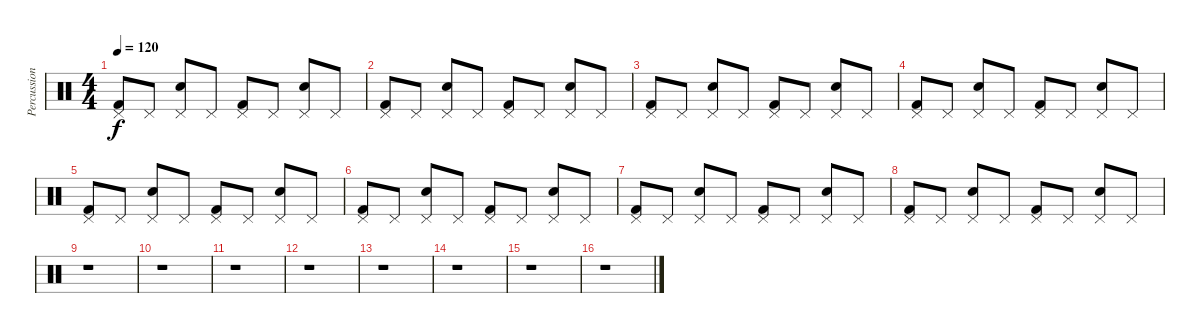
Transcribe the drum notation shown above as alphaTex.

\track ("Percussion" "Percussion") {instrument percussion}
\staff {score}
\articulation defaults
\ts (4 4)
\tempo 120
\clef neutral
\ks c
("Pedal Hi-Hat (hit)" "Kick (hit) 2").8{dy f} "Pedal Hi-Hat (hit)".8 ("Pedal Hi-Hat (hit)" "Snare (hit) 2").8 "Pedal Hi-Hat (hit)".8 ("Pedal Hi-Hat (hit)" "Kick (hit) 2").8 "Pedal Hi-Hat (hit)".8 ("Pedal Hi-Hat (hit)" "Snare (hit) 2").8 "Pedal Hi-Hat (hit)".8 |
("Pedal Hi-Hat (hit)" "Kick (hit) 2").8 "Pedal Hi-Hat (hit)".8 ("Pedal Hi-Hat (hit)" "Snare (hit) 2").8 "Pedal Hi-Hat (hit)".8 ("Pedal Hi-Hat (hit)" "Kick (hit) 2").8 "Pedal Hi-Hat (hit)".8 ("Pedal Hi-Hat (hit)" "Snare (hit) 2").8 "Pedal Hi-Hat (hit)".8 |
("Pedal Hi-Hat (hit)" "Kick (hit) 2").8 "Pedal Hi-Hat (hit)".8 ("Pedal Hi-Hat (hit)" "Snare (hit) 2").8 "Pedal Hi-Hat (hit)".8 ("Pedal Hi-Hat (hit)" "Kick (hit) 2").8 "Pedal Hi-Hat (hit)".8 ("Pedal Hi-Hat (hit)" "Snare (hit) 2").8 "Pedal Hi-Hat (hit)".8 |
("Pedal Hi-Hat (hit)" "Kick (hit) 2").8 "Pedal Hi-Hat (hit)".8 ("Pedal Hi-Hat (hit)" "Snare (hit) 2").8 "Pedal Hi-Hat (hit)".8 ("Pedal Hi-Hat (hit)" "Kick (hit) 2").8 "Pedal Hi-Hat (hit)".8 ("Pedal Hi-Hat (hit)" "Snare (hit) 2").8 "Pedal Hi-Hat (hit)".8 |
("Pedal Hi-Hat (hit)" "Kick (hit) 2").8 "Pedal Hi-Hat (hit)".8 ("Pedal Hi-Hat (hit)" "Snare (hit) 2").8 "Pedal Hi-Hat (hit)".8 ("Pedal Hi-Hat (hit)" "Kick (hit) 2").8 "Pedal Hi-Hat (hit)".8 ("Pedal Hi-Hat (hit)" "Snare (hit) 2").8 "Pedal Hi-Hat (hit)".8 |
("Pedal Hi-Hat (hit)" "Kick (hit) 2").8 "Pedal Hi-Hat (hit)".8 ("Pedal Hi-Hat (hit)" "Snare (hit) 2").8 "Pedal Hi-Hat (hit)".8 ("Pedal Hi-Hat (hit)" "Kick (hit) 2").8 "Pedal Hi-Hat (hit)".8 ("Pedal Hi-Hat (hit)" "Snare (hit) 2").8 "Pedal Hi-Hat (hit)".8 |
("Pedal Hi-Hat (hit)" "Kick (hit) 2").8 "Pedal Hi-Hat (hit)".8 ("Pedal Hi-Hat (hit)" "Snare (hit) 2").8 "Pedal Hi-Hat (hit)".8 ("Pedal Hi-Hat (hit)" "Kick (hit) 2").8 "Pedal Hi-Hat (hit)".8 ("Pedal Hi-Hat (hit)" "Snare (hit) 2").8 "Pedal Hi-Hat (hit)".8 |
("Pedal Hi-Hat (hit)" "Kick (hit) 2").8 "Pedal Hi-Hat (hit)".8 ("Pedal Hi-Hat (hit)" "Snare (hit) 2").8 "Pedal Hi-Hat (hit)".8 ("Pedal Hi-Hat (hit)" "Kick (hit) 2").8 "Pedal Hi-Hat (hit)".8 ("Pedal Hi-Hat (hit)" "Snare (hit) 2").8 "Pedal Hi-Hat (hit)".8 |
r.1 |
r.1 |
r.1 |
r.1 |
r.1 |
r.1 |
r.1 |
r.1
